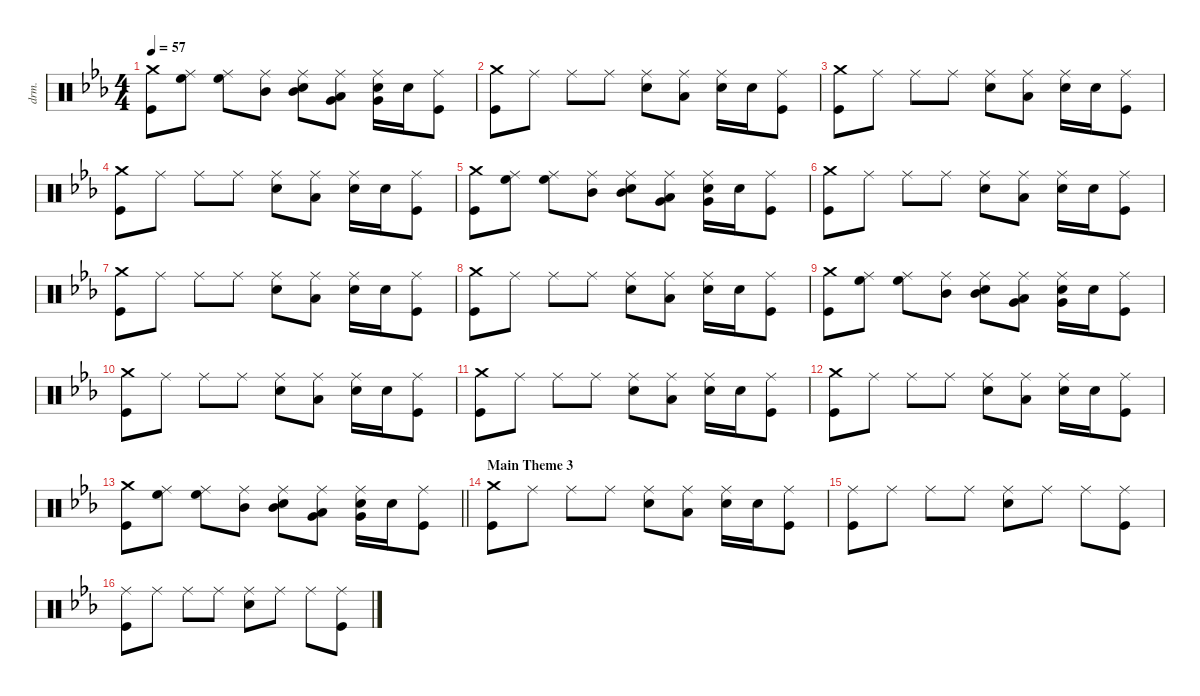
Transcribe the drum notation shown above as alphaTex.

\defaultSystemsLayout 4
\hideDynamics
\bracketExtendMode groupsimilarinstruments
\otherSystemsTrackNameOrientation horizontal
\track ("Percussion" "drm.") {defaultSystemsLayout 4 instrument percussion}
\staff {score}
\articulation defaults
\ts (4 4)
\tempo 57
\clef neutral
\ks cminor
("Crash medium (hit)"{acc forcenatural} "Kick (hit)"{acc forcenatural}).8{dy f beam Down} ("High Floor Tom (hit)"{acc forcenatural} "Ride (middle)"{acc forcenatural}).8{beam Down} ("High Floor Tom (hit)"{acc forcenatural} "Ride (middle)"{acc forcenatural}).8{beam Down} ("Mid Tom (hit)"{acc forcenatural} "Ride (middle)"{acc forcenatural}).8{beam Down} ("Mid Tom (hit)"{acc forcenatural} "Snare (hit) 2"{acc forcenatural} "Ride (middle)"{acc forcenatural}).8{beam Down} ("Very Low Tom (hit)"{acc forcenatural} "Low Floor Tom (hit)"{acc forcenatural} "Ride (middle)"{acc forcenatural}).8{beam Down} ("Very Low Tom (hit)"{acc forcenatural} "Snare (hit) 2"{acc forcenatural} "Ride (middle)"{acc forcenatural}).16{beam Down} "Snare (hit) 2"{acc forcenatural}.16{beam Down} ("Kick (hit)"{acc forcenatural} "Ride (middle)"{acc forcenatural}).8{beam Down} |
("Crash medium (hit)"{acc forcenatural} "Kick (hit)"{acc forcenatural}).8{beam Down} "Ride (middle)"{acc forcenatural}.8{beam Down} "Ride (middle)"{acc forcenatural}.8{beam Down} "Ride (middle)"{acc forcenatural}.8{beam Down} ("Snare (hit) 2"{acc forcenatural} "Ride (middle)"{acc forcenatural}).8{beam Down} ("Low Floor Tom (hit)"{acc forcenatural} "Ride (middle)"{acc forcenatural}).8{beam Down} ("Snare (hit) 2"{acc forcenatural} "Ride (middle)"{acc forcenatural}).16{beam Down} "Snare (hit) 2"{acc forcenatural}.16{beam Down} ("Kick (hit)"{acc forcenatural} "Ride (middle)"{acc forcenatural}).8{beam Down} |
("Crash medium (hit)"{acc forcenatural} "Kick (hit)"{acc forcenatural}).8{beam Down} "Ride (middle)"{acc forcenatural}.8{beam Down} "Ride (middle)"{acc forcenatural}.8{beam Down} "Ride (middle)"{acc forcenatural}.8{beam Down} ("Snare (hit) 2"{acc forcenatural} "Ride (middle)"{acc forcenatural}).8{beam Down} ("Low Floor Tom (hit)"{acc forcenatural} "Ride (middle)"{acc forcenatural}).8{beam Down} ("Snare (hit) 2"{acc forcenatural} "Ride (middle)"{acc forcenatural}).16{beam Down} "Snare (hit) 2"{acc forcenatural}.16{beam Down} ("Kick (hit)"{acc forcenatural} "Ride (middle)"{acc forcenatural}).8{beam Down} |
("Crash medium (hit)"{acc forcenatural} "Kick (hit)"{acc forcenatural}).8{beam Down} "Ride (middle)"{acc forcenatural}.8{beam Down} "Ride (middle)"{acc forcenatural}.8{beam Down} "Ride (middle)"{acc forcenatural}.8{beam Down} ("Snare (hit) 2"{acc forcenatural} "Ride (middle)"{acc forcenatural}).8{beam Down} ("Low Floor Tom (hit)"{acc forcenatural} "Ride (middle)"{acc forcenatural}).8{beam Down} ("Snare (hit) 2"{acc forcenatural} "Ride (middle)"{acc forcenatural}).16{beam Down} "Snare (hit) 2"{acc forcenatural}.16{beam Down} ("Kick (hit)"{acc forcenatural} "Ride (middle)"{acc forcenatural}).8{beam Down} |
("Crash medium (hit)"{acc forcenatural} "Kick (hit)"{acc forcenatural}).8{beam Down} ("High Floor Tom (hit)"{acc forcenatural} "Ride (middle)"{acc forcenatural}).8{beam Down} ("High Floor Tom (hit)"{acc forcenatural} "Ride (middle)"{acc forcenatural}).8{beam Down} ("Mid Tom (hit)"{acc forcenatural} "Ride (middle)"{acc forcenatural}).8{beam Down} ("Mid Tom (hit)"{acc forcenatural} "Snare (hit) 2"{acc forcenatural} "Ride (middle)"{acc forcenatural}).8{beam Down} ("Very Low Tom (hit)"{acc forcenatural} "Low Floor Tom (hit)"{acc forcenatural} "Ride (middle)"{acc forcenatural}).8{beam Down} ("Very Low Tom (hit)"{acc forcenatural} "Snare (hit) 2"{acc forcenatural} "Ride (middle)"{acc forcenatural}).16{beam Down} "Snare (hit) 2"{acc forcenatural}.16{beam Down} ("Kick (hit)"{acc forcenatural} "Ride (middle)"{acc forcenatural}).8{beam Down} |
("Crash medium (hit)"{acc forcenatural} "Kick (hit)"{acc forcenatural}).8{beam Down} "Ride (middle)"{acc forcenatural}.8{beam Down} "Ride (middle)"{acc forcenatural}.8{beam Down} "Ride (middle)"{acc forcenatural}.8{beam Down} ("Snare (hit) 2"{acc forcenatural} "Ride (middle)"{acc forcenatural}).8{beam Down} ("Low Floor Tom (hit)"{acc forcenatural} "Ride (middle)"{acc forcenatural}).8{beam Down} ("Snare (hit) 2"{acc forcenatural} "Ride (middle)"{acc forcenatural}).16{beam Down} "Snare (hit) 2"{acc forcenatural}.16{beam Down} ("Kick (hit)"{acc forcenatural} "Ride (middle)"{acc forcenatural}).8{beam Down} |
("Crash medium (hit)"{acc forcenatural} "Kick (hit)"{acc forcenatural}).8{beam Down} "Ride (middle)"{acc forcenatural}.8{beam Down} "Ride (middle)"{acc forcenatural}.8{beam Down} "Ride (middle)"{acc forcenatural}.8{beam Down} ("Snare (hit) 2"{acc forcenatural} "Ride (middle)"{acc forcenatural}).8{beam Down} ("Low Floor Tom (hit)"{acc forcenatural} "Ride (middle)"{acc forcenatural}).8{beam Down} ("Snare (hit) 2"{acc forcenatural} "Ride (middle)"{acc forcenatural}).16{beam Down} "Snare (hit) 2"{acc forcenatural}.16{beam Down} ("Kick (hit)"{acc forcenatural} "Ride (middle)"{acc forcenatural}).8{beam Down} |
("Crash medium (hit)"{acc forcenatural} "Kick (hit)"{acc forcenatural}).8{beam Down} "Ride (middle)"{acc forcenatural}.8{beam Down} "Ride (middle)"{acc forcenatural}.8{beam Down} "Ride (middle)"{acc forcenatural}.8{beam Down} ("Snare (hit) 2"{acc forcenatural} "Ride (middle)"{acc forcenatural}).8{beam Down} ("Low Floor Tom (hit)"{acc forcenatural} "Ride (middle)"{acc forcenatural}).8{beam Down} ("Snare (hit) 2"{acc forcenatural} "Ride (middle)"{acc forcenatural}).16{beam Down} "Snare (hit) 2"{acc forcenatural}.16{beam Down} ("Kick (hit)"{acc forcenatural} "Ride (middle)"{acc forcenatural}).8{beam Down} |
("Crash medium (hit)"{acc forcenatural} "Kick (hit)"{acc forcenatural}).8{beam Down} ("High Floor Tom (hit)"{acc forcenatural} "Ride (middle)"{acc forcenatural}).8{beam Down} ("High Floor Tom (hit)"{acc forcenatural} "Ride (middle)"{acc forcenatural}).8{beam Down} ("Mid Tom (hit)"{acc forcenatural} "Ride (middle)"{acc forcenatural}).8{beam Down} ("Mid Tom (hit)"{acc forcenatural} "Snare (hit) 2"{acc forcenatural} "Ride (middle)"{acc forcenatural}).8{beam Down} ("Very Low Tom (hit)"{acc forcenatural} "Low Floor Tom (hit)"{acc forcenatural} "Ride (middle)"{acc forcenatural}).8{beam Down} ("Very Low Tom (hit)"{acc forcenatural} "Snare (hit) 2"{acc forcenatural} "Ride (middle)"{acc forcenatural}).16{beam Down} "Snare (hit) 2"{acc forcenatural}.16{beam Down} ("Kick (hit)"{acc forcenatural} "Ride (middle)"{acc forcenatural}).8{beam Down} |
("Crash medium (hit)"{acc forcenatural} "Kick (hit)"{acc forcenatural}).8{beam Down} "Ride (middle)"{acc forcenatural}.8{beam Down} "Ride (middle)"{acc forcenatural}.8{beam Down} "Ride (middle)"{acc forcenatural}.8{beam Down} ("Snare (hit) 2"{acc forcenatural} "Ride (middle)"{acc forcenatural}).8{beam Down} ("Low Floor Tom (hit)"{acc forcenatural} "Ride (middle)"{acc forcenatural}).8{beam Down} ("Snare (hit) 2"{acc forcenatural} "Ride (middle)"{acc forcenatural}).16{beam Down} "Snare (hit) 2"{acc forcenatural}.16{beam Down} ("Kick (hit)"{acc forcenatural} "Ride (middle)"{acc forcenatural}).8{beam Down} |
("Crash medium (hit)"{acc forcenatural} "Kick (hit)"{acc forcenatural}).8{beam Down} "Ride (middle)"{acc forcenatural}.8{beam Down} "Ride (middle)"{acc forcenatural}.8{beam Down} "Ride (middle)"{acc forcenatural}.8{beam Down} ("Snare (hit) 2"{acc forcenatural} "Ride (middle)"{acc forcenatural}).8{beam Down} ("Low Floor Tom (hit)"{acc forcenatural} "Ride (middle)"{acc forcenatural}).8{beam Down} ("Snare (hit) 2"{acc forcenatural} "Ride (middle)"{acc forcenatural}).16{beam Down} "Snare (hit) 2"{acc forcenatural}.16{beam Down} ("Kick (hit)"{acc forcenatural} "Ride (middle)"{acc forcenatural}).8{beam Down} |
("Crash medium (hit)"{acc forcenatural} "Kick (hit)"{acc forcenatural}).8{beam Down} "Ride (middle)"{acc forcenatural}.8{beam Down} "Ride (middle)"{acc forcenatural}.8{beam Down} "Ride (middle)"{acc forcenatural}.8{beam Down} ("Snare (hit) 2"{acc forcenatural} "Ride (middle)"{acc forcenatural}).8{beam Down} ("Low Floor Tom (hit)"{acc forcenatural} "Ride (middle)"{acc forcenatural}).8{beam Down} ("Snare (hit) 2"{acc forcenatural} "Ride (middle)"{acc forcenatural}).16{beam Down} "Snare (hit) 2"{acc forcenatural}.16{beam Down} ("Kick (hit)"{acc forcenatural} "Ride (middle)"{acc forcenatural}).8{beam Down} |
\barLineRight lightlight
("Crash medium (hit)"{acc forcenatural} "Kick (hit)"{acc forcenatural}).8{beam Down} ("High Floor Tom (hit)"{acc forcenatural} "Ride (middle)"{acc forcenatural}).8{beam Down} ("High Floor Tom (hit)"{acc forcenatural} "Ride (middle)"{acc forcenatural}).8{beam Down} ("Mid Tom (hit)"{acc forcenatural} "Ride (middle)"{acc forcenatural}).8{beam Down} ("Mid Tom (hit)"{acc forcenatural} "Snare (hit) 2"{acc forcenatural} "Ride (middle)"{acc forcenatural}).8{beam Down} ("Very Low Tom (hit)"{acc forcenatural} "Low Floor Tom (hit)"{acc forcenatural} "Ride (middle)"{acc forcenatural}).8{beam Down} ("Very Low Tom (hit)"{acc forcenatural} "Snare (hit) 2"{acc forcenatural} "Ride (middle)"{acc forcenatural}).16{beam Down} "Snare (hit) 2"{acc forcenatural}.16{beam Down} ("Kick (hit)"{acc forcenatural} "Ride (middle)"{acc forcenatural}).8{beam Down} |
\section ("" "Main Theme 3")
("Crash medium (hit)"{acc forcenatural} "Kick (hit)"{acc forcenatural}).8{beam Down} "Ride (middle)"{acc forcenatural}.8{beam Down} "Ride (middle)"{acc forcenatural}.8{beam Down} "Ride (middle)"{acc forcenatural}.8{beam Down} ("Snare (hit) 2"{acc forcenatural} "Ride (middle)"{acc forcenatural}).8{beam Down} ("Low Floor Tom (hit)"{acc forcenatural} "Ride (middle)"{acc forcenatural}).8{beam Down} ("Snare (hit) 2"{acc forcenatural} "Ride (middle)"{acc forcenatural}).16{beam Down} "Snare (hit) 2"{acc forcenatural}.16{beam Down} ("Kick (hit)"{acc forcenatural} "Ride (middle)"{acc forcenatural}).8{beam Down} |
("Ride (middle)"{acc forcenatural} "Kick (hit)"{acc forcenatural}).8{beam Down} "Ride (middle)"{acc forcenatural}.8{beam Down} "Ride (middle)"{acc forcenatural}.8{beam Down} "Ride (middle)"{acc forcenatural}.8{beam Down} ("Snare (hit) 2"{acc forcenatural} "Ride (middle)"{acc forcenatural}).8{beam Down} "Ride (middle)"{acc forcenatural}.8{beam Down} "Ride (middle)"{acc forcenatural}.8{beam Down} ("Kick (hit)"{acc forcenatural} "Ride (middle)"{acc forcenatural}).8{beam Down} |
("Ride (middle)"{acc forcenatural} "Kick (hit)"{acc forcenatural}).8{beam Down} "Ride (middle)"{acc forcenatural}.8{beam Down} "Ride (middle)"{acc forcenatural}.8{beam Down} "Ride (middle)"{acc forcenatural}.8{beam Down} ("Snare (hit) 2"{acc forcenatural} "Ride (middle)"{acc forcenatural}).8{beam Down} "Ride (middle)"{acc forcenatural}.8{beam Down} "Ride (middle)"{acc forcenatural}.8{beam Down} ("Kick (hit)"{acc forcenatural} "Ride (middle)"{acc forcenatural}).8{beam Down}
